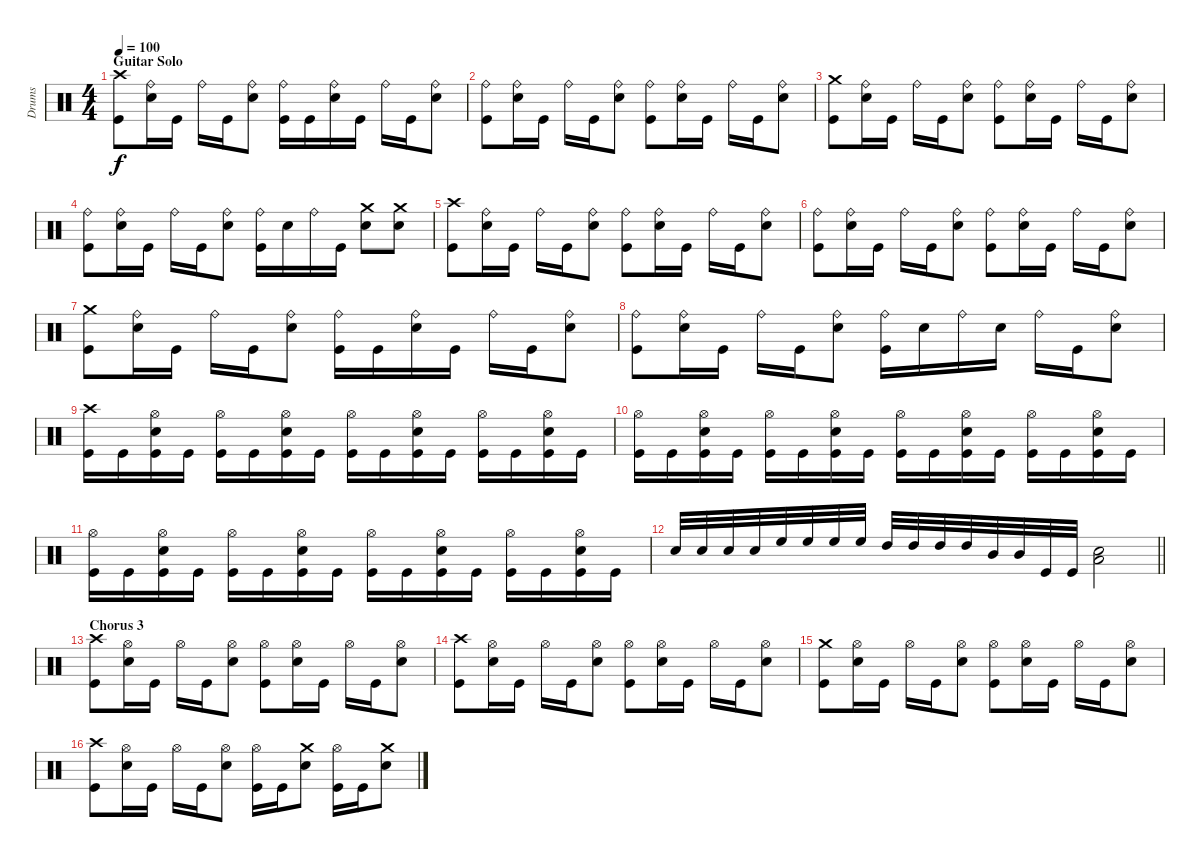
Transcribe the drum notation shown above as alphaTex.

\track ("Drums" "Drums") {instrument percussion}
\staff {score}
\articulation defaults
\ts (4 4)
\section ("" "Guitar Solo")
\tempo 100
\clef neutral
\ks c
("Kick (hit)" "Crash high (hit)").8{dy f} ("Electric Snare (hit)" "Ride (bell)").16 "Kick (hit)".16 "Ride (bell)".16 "Kick (hit)".16 ("Electric Snare (hit)" "Ride (bell)").8 ("Kick (hit)" "Ride (bell)").16 "Kick (hit)".16 ("Electric Snare (hit)" "Ride (bell)").16 "Kick (hit)".16 "Ride (bell)".16 "Kick (hit)".16 ("Electric Snare (hit)" "Ride (bell)").8 |
("Kick (hit)" "Ride (bell)").8 ("Electric Snare (hit)" "Ride (bell)").16 "Kick (hit)".16 "Ride (bell)".16 "Kick (hit)".16 ("Electric Snare (hit)" "Ride (bell)").8 ("Kick (hit)" "Ride (bell)").8 ("Electric Snare (hit)" "Ride (bell)").16 "Kick (hit)".16 "Ride (bell)".16 "Kick (hit)".16 ("Electric Snare (hit)" "Ride (bell)").8 |
("Kick (hit)" "Crash medium (hit)").8 ("Electric Snare (hit)" "Ride (bell)").16 "Kick (hit)".16 "Ride (bell)".16 "Kick (hit)".16 ("Electric Snare (hit)" "Ride (bell)").8 ("Kick (hit)" "Ride (bell)").8 ("Electric Snare (hit)" "Ride (bell)").16 "Kick (hit)".16 "Ride (bell)".16 "Kick (hit)".16 ("Electric Snare (hit)" "Ride (bell)").8 |
("Kick (hit)" "Ride (bell)").8 ("Electric Snare (hit)" "Ride (bell)").16 "Kick (hit)".16 "Ride (bell)".16 "Kick (hit)".16 ("Electric Snare (hit)" "Ride (bell)").8 ("Kick (hit)" "Ride (bell)").16 "Electric Snare (hit)".16 "Ride (bell)".16 "Kick (hit)".16 ("Electric Snare (hit)" "Crash medium (hit)").8 ("Electric Snare (hit)" "Crash medium (hit)").8 |
("Kick (hit)" "Crash high (hit)").8 ("Electric Snare (hit)" "Ride (bell)").16 "Kick (hit)".16 "Ride (bell)".16 "Kick (hit)".16 ("Electric Snare (hit)" "Ride (bell)").8 ("Kick (hit)" "Ride (bell)").8 ("Electric Snare (hit)" "Ride (bell)").16 "Kick (hit)".16 "Ride (bell)".16 "Kick (hit)".16 ("Electric Snare (hit)" "Ride (bell)").8 |
("Kick (hit)" "Ride (bell)").8 ("Electric Snare (hit)" "Ride (bell)").16 "Kick (hit)".16 "Ride (bell)".16 "Kick (hit)".16 ("Electric Snare (hit)" "Ride (bell)").8 ("Kick (hit)" "Ride (bell)").8 ("Electric Snare (hit)" "Ride (bell)").16 "Kick (hit)".16 "Ride (bell)".16 "Kick (hit)".16 ("Electric Snare (hit)" "Ride (bell)").8 |
("Kick (hit)" "Crash medium (hit)").8 ("Electric Snare (hit)" "Ride (bell)").16 "Kick (hit)".16 "Ride (bell)".16 "Kick (hit)".16 ("Electric Snare (hit)" "Ride (bell)").8 ("Kick (hit)" "Ride (bell)").16 "Kick (hit)".16 ("Electric Snare (hit)" "Ride (bell)").16 "Kick (hit)".16 "Ride (bell)".16 "Kick (hit)".16 ("Electric Snare (hit)" "Ride (bell)").8 |
("Kick (hit)" "Ride (bell)").8 ("Electric Snare (hit)" "Ride (bell)").16 "Kick (hit)".16 "Ride (bell)".16 "Kick (hit)".16 ("Electric Snare (hit)" "Ride (bell)").8 ("Kick (hit)" "Ride (bell)").16 "Electric Snare (hit)".16 "Ride (bell)".16 "Electric Snare (hit)".16 "Ride (bell)".16 "Kick (hit)".16 ("Electric Snare (hit)" "Ride (bell)").8 |
("Kick (hit)" "Crash high (hit)").16 "Kick (hit)".16 ("Kick (hit)" "Electric Snare (hit)" "Hi-Hat (open)").16 "Kick (hit)".16 ("Kick (hit)" "Hi-Hat (open)").16 "Kick (hit)".16 ("Kick (hit)" "Electric Snare (hit)" "Hi-Hat (open)").16 "Kick (hit)".16 ("Kick (hit)" "Hi-Hat (open)").16 "Kick (hit)".16 ("Kick (hit)" "Electric Snare (hit)" "Hi-Hat (open)").16 "Kick (hit)".16 ("Kick (hit)" "Hi-Hat (open)").16 "Kick (hit)".16 ("Kick (hit)" "Electric Snare (hit)" "Hi-Hat (open)").16 "Kick (hit)".16 |
("Kick (hit)" "Hi-Hat (open)").16 "Kick (hit)".16 ("Kick (hit)" "Electric Snare (hit)" "Hi-Hat (open)").16 "Kick (hit)".16 ("Kick (hit)" "Hi-Hat (open)").16 "Kick (hit)".16 ("Kick (hit)" "Electric Snare (hit)" "Hi-Hat (open)").16 "Kick (hit)".16 ("Kick (hit)" "Hi-Hat (open)").16 "Kick (hit)".16 ("Kick (hit)" "Electric Snare (hit)" "Hi-Hat (open)").16 "Kick (hit)".16 ("Kick (hit)" "Hi-Hat (open)").16 "Kick (hit)".16 ("Kick (hit)" "Electric Snare (hit)" "Hi-Hat (open)").16 "Kick (hit)".16 |
("Kick (hit)" "Hi-Hat (open)").16 "Kick (hit)".16 ("Kick (hit)" "Electric Snare (hit)" "Hi-Hat (open)").16 "Kick (hit)".16 ("Kick (hit)" "Hi-Hat (open)").16 "Kick (hit)".16 ("Kick (hit)" "Electric Snare (hit)" "Hi-Hat (open)").16 "Kick (hit)".16 ("Kick (hit)" "Hi-Hat (open)").16 "Kick (hit)".16 ("Kick (hit)" "Electric Snare (hit)" "Hi-Hat (open)").16 "Kick (hit)".16 ("Kick (hit)" "Hi-Hat (open)").16 "Kick (hit)".16 ("Kick (hit)" "Electric Snare (hit)" "Hi-Hat (open)").16 "Kick (hit)".16 |
\barLineRight lightlight "Electric Snare (hit)".32{beam Up} "Electric Snare (hit)".32{beam Up} "Electric Snare (hit)".32{beam Up} "Electric Snare (hit)".32{beam Up} "High Floor Tom (hit)".32{beam Up} "High Floor Tom (hit)".32{beam Up} "High Floor Tom (hit)".32{beam Up} "High Floor Tom (hit)".32{beam Up} "High Tom (hit)".32 "High Tom (hit)".32 "High Tom (hit)".32 "High Tom (hit)".32 "Mid Tom (hit)".32 "Mid Tom (hit)".32 "Kick (hit)".32 "Kick (hit)".32
("Electric Snare (hit)" "Low Tom (hit)").2 |
\section ("" "Chorus 3")
("Kick (hit)" "Crash high (hit)").8 ("Electric Snare (hit)" "Hi-Hat (open)").16 "Kick (hit)".16 "Hi-Hat (open)".16 "Kick (hit)".16 ("Electric Snare (hit)" "Hi-Hat (open)").8 ("Kick (hit)" "Hi-Hat (open)").8 ("Electric Snare (hit)" "Hi-Hat (open)").16 "Kick (hit)".16 "Hi-Hat (open)".16 "Kick (hit)".16 ("Electric Snare (hit)" "Hi-Hat (open)").8 |
("Kick (hit)" "Crash high (hit)").8 ("Electric Snare (hit)" "Hi-Hat (open)").16 "Kick (hit)".16 "Hi-Hat (open)".16 "Kick (hit)".16 ("Electric Snare (hit)" "Hi-Hat (open)").8 ("Kick (hit)" "Hi-Hat (open)").8 ("Electric Snare (hit)" "Hi-Hat (open)").16 "Kick (hit)".16 "Hi-Hat (open)".16 "Kick (hit)".16 ("Electric Snare (hit)" "Hi-Hat (open)").8 |
("Kick (hit)" "Crash medium (hit)").8 ("Electric Snare (hit)" "Hi-Hat (open)").16 "Kick (hit)".16 "Hi-Hat (open)".16 "Kick (hit)".16 ("Electric Snare (hit)" "Hi-Hat (open)").8 ("Kick (hit)" "Hi-Hat (open)").8 ("Electric Snare (hit)" "Hi-Hat (open)").16 "Kick (hit)".16 "Hi-Hat (open)".16 "Kick (hit)".16 ("Electric Snare (hit)" "Hi-Hat (open)").8 |
("Kick (hit)" "Crash high (hit)").8 ("Electric Snare (hit)" "Hi-Hat (open)").16 "Kick (hit)".16 "Hi-Hat (open)".16 "Kick (hit)".16 ("Electric Snare (hit)" "Hi-Hat (open)").8 ("Kick (hit)" "Hi-Hat (open)").16 "Kick (hit)".16 ("Electric Snare (hit)" "Crash medium (hit)").8 ("Kick (hit)" "Hi-Hat (open)").16 "Kick (hit)".16 ("Electric Snare (hit)" "Crash medium (hit)").8
